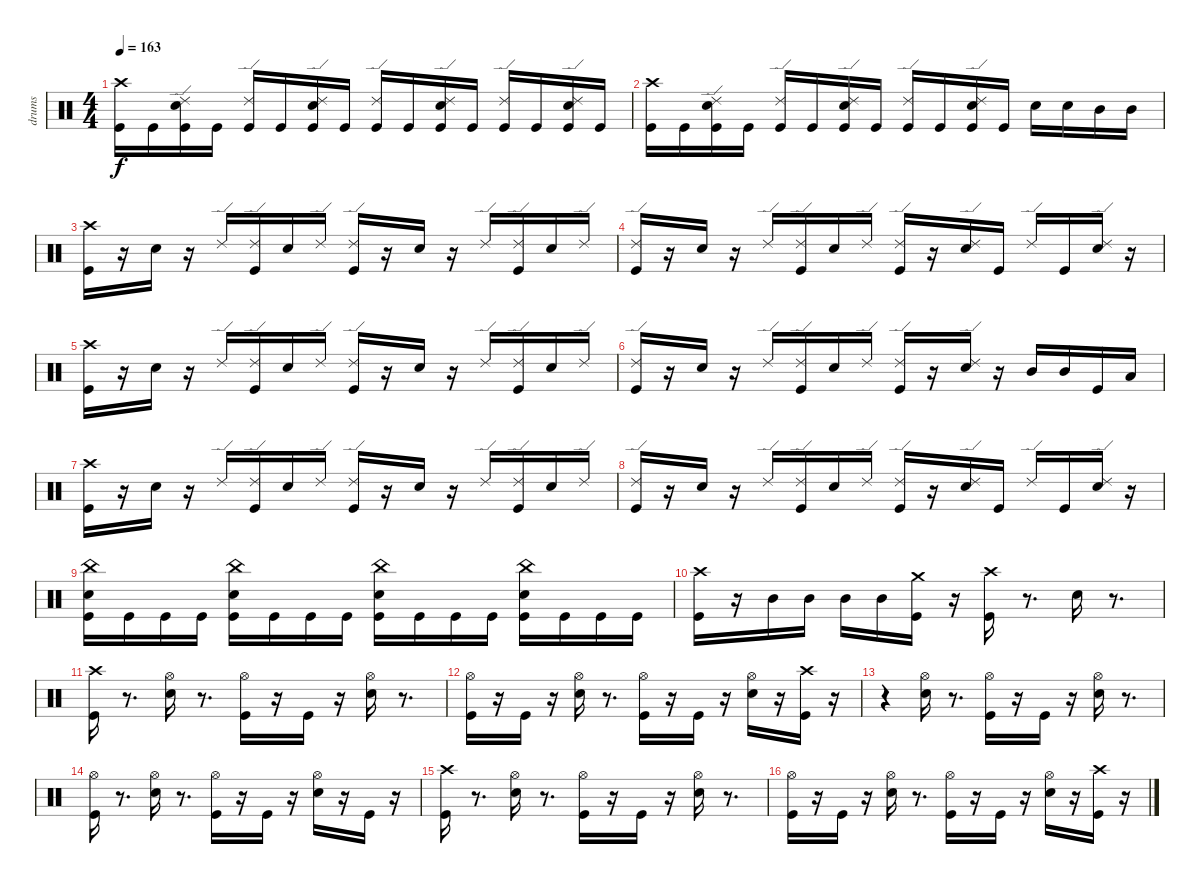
\track ("drums" "drums") {instrument percussion}
\staff {score}
\articulation defaults
\ts (4 4)
\tempo 163
\clef neutral
\ks c
("Crash high (hit)" "Kick (hit)").16{dy f} "Kick (hit)".16 ("Ride (edge) 2" "Kick (hit)" "Snare (hit) 2").16 "Kick (hit)".16 ("Ride (edge) 2" "Kick (hit)").16 "Kick (hit)".16 ("Ride (edge) 2" "Snare (hit) 2" "Kick (hit)").16 "Kick (hit)".16 ("Ride (edge) 2" "Kick (hit)").16 "Kick (hit)".16 ("Ride (edge) 2" "Snare (hit) 2" "Kick (hit)").16 "Kick (hit)".16 ("Ride (edge) 2" "Kick (hit)").16 "Kick (hit)".16 ("Ride (edge) 2" "Snare (hit) 2" "Kick (hit)").16 "Kick (hit)".16 |
("Crash high (hit)" "Kick (hit)").16 "Kick (hit)".16 ("Ride (edge) 2" "Kick (hit)" "Snare (hit) 2").16 "Kick (hit)".16 ("Ride (edge) 2" "Kick (hit)").16 "Kick (hit)".16 ("Ride (edge) 2" "Snare (hit) 2" "Kick (hit)").16 "Kick (hit)".16 ("Ride (edge) 2" "Kick (hit)").16 "Kick (hit)".16 ("Ride (edge) 2" "Snare (hit) 2" "Kick (hit)").16 "Kick (hit)".16 "Snare (hit) 2".16 "Snare (hit) 2".16 "Mid Tom (hit)".16 "Mid Tom (hit)".16 |
("Crash high (hit)" "Kick (hit)").16 r.16 "Snare (hit) 2".16 r.16 "Ride (edge) 2".16 ("Ride (edge) 2" "Kick (hit)").16 "Snare (hit) 2".16 "Ride (edge) 2".16 ("Ride (edge) 2" "Kick (hit)").16 r.16 "Snare (hit) 2".16 r.16 "Ride (edge) 2".16 ("Ride (edge) 2" "Kick (hit)").16 "Snare (hit) 2".16 "Ride (edge) 2".16 |
("Kick (hit)" "Ride (edge) 2").16 r.16 "Snare (hit) 2".16 r.16 "Ride (edge) 2".16 ("Ride (edge) 2" "Kick (hit)").16 "Snare (hit) 2".16 "Ride (edge) 2".16 ("Ride (edge) 2" "Kick (hit)").16 r.16 ("Ride (edge) 2" "Snare (hit) 2").16 "Kick (hit)".16 "Ride (edge) 2".16 "Kick (hit)".16 ("Ride (edge) 2" "Snare (hit) 2").16 r.16 |
("Crash high (hit)" "Kick (hit)").16 r.16 "Snare (hit) 2".16 r.16 "Ride (edge) 2".16 ("Ride (edge) 2" "Kick (hit)").16 "Snare (hit) 2".16 "Ride (edge) 2".16 ("Ride (edge) 2" "Kick (hit)").16 r.16 "Snare (hit) 2".16 r.16 "Ride (edge) 2".16 ("Ride (edge) 2" "Kick (hit)").16 "Snare (hit) 2".16 "Ride (edge) 2".16 |
("Kick (hit)" "Ride (edge) 2").16 r.16 "Snare (hit) 2".16 r.16 "Ride (edge) 2".16 ("Ride (edge) 2" "Kick (hit)").16 "Snare (hit) 2".16 "Ride (edge) 2".16 ("Ride (edge) 2" "Kick (hit)").16 r.16 ("Ride (edge) 2" "Snare (hit) 2").16 r.16 "Mid Tom (hit)".16 "Mid Tom (hit)".16 "Kick (hit)".16 "Low Tom (hit)".16 |
("Crash high (hit)" "Kick (hit)").16 r.16 "Snare (hit) 2".16 r.16 "Ride (edge) 2".16 ("Ride (edge) 2" "Kick (hit)").16 "Snare (hit) 2".16 "Ride (edge) 2".16 ("Ride (edge) 2" "Kick (hit)").16 r.16 "Snare (hit) 2".16 r.16 "Ride (edge) 2".16 ("Ride (edge) 2" "Kick (hit)").16 "Snare (hit) 2".16 "Ride (edge) 2".16 |
("Kick (hit)" "Ride (edge) 2").16 r.16 "Snare (hit) 2".16 r.16 "Ride (edge) 2".16 ("Ride (edge) 2" "Kick (hit)").16 "Snare (hit) 2".16 "Ride (edge) 2".16 ("Ride (edge) 2" "Kick (hit)").16 r.16 ("Ride (edge) 2" "Snare (hit) 2").16 "Kick (hit)".16 "Ride (edge) 2".16 "Kick (hit)".16 ("Ride (edge) 2" "Snare (hit) 2").16 r.16 |
("China (hit)" "Snare (hit) 2" "Kick (hit)").16 "Kick (hit)".16 "Kick (hit)".16 "Kick (hit)".16 ("Snare (hit) 2" "China (hit)" "Kick (hit)").16 "Kick (hit)".16 "Kick (hit)".16 "Kick (hit)".16 ("China (hit)" "Snare (hit) 2" "Kick (hit)").16 "Kick (hit)".16 "Kick (hit)".16 "Kick (hit)".16 ("Snare (hit) 2" "China (hit)" "Kick (hit)").16 "Kick (hit)".16 "Kick (hit)".16 "Kick (hit)".16 |
("Kick (hit)" "Crash high (hit)").16 r.16 "Mid Tom (hit)".16 "Mid Tom (hit)".16 "Mid Tom (hit)".16 "Mid Tom (hit)".16 ("Kick (hit)" "Crash medium (hit)").16 r.16 ("Crash high (hit)" "Kick (hit)").16 r.8{d} "Snare (hit) 2".16 r.8{d} |
("Crash high (hit)" "Kick (hit)").16 r.8{d} ("Hi-Hat (open)" "Snare (hit) 2").16 r.8{d} ("Hi-Hat (open)" "Kick (hit)").16 r.16 "Kick (hit)".16 r.16 ("Hi-Hat (open)" "Snare (hit) 2").16 r.8{d} |
("Hi-Hat (open)" "Kick (hit)").16 r.16 "Kick (hit)".16 r.16 ("Hi-Hat (open)" "Snare (hit) 2").16 r.8{d} ("Hi-Hat (open)" "Kick (hit)").16 r.16 "Kick (hit)".16 r.16 ("Hi-Hat (open)" "Snare (hit) 2").16 r.16 ("Crash high (hit)" "Kick (hit)").16 r.16 |
r.4 ("Hi-Hat (open)" "Snare (hit) 2").16 r.8{d} ("Hi-Hat (open)" "Kick (hit)").16 r.16 "Kick (hit)".16 r.16 ("Hi-Hat (open)" "Snare (hit) 2").16 r.8{d} |
("Hi-Hat (open)" "Kick (hit)").16 r.8{d} ("Hi-Hat (open)" "Snare (hit) 2").16 r.8{d} ("Hi-Hat (open)" "Kick (hit)").16 r.16 "Kick (hit)".16 r.16 ("Hi-Hat (open)" "Snare (hit) 2").16 r.16 "Kick (hit)".16 r.16 |
("Crash high (hit)" "Kick (hit)").16 r.8{d} ("Hi-Hat (open)" "Snare (hit) 2").16 r.8{d} ("Hi-Hat (open)" "Kick (hit)").16 r.16 "Kick (hit)".16 r.16 ("Hi-Hat (open)" "Snare (hit) 2").16 r.8{d} |
("Hi-Hat (open)" "Kick (hit)").16 r.16 "Kick (hit)".16 r.16 ("Hi-Hat (open)" "Snare (hit) 2").16 r.8{d} ("Hi-Hat (open)" "Kick (hit)").16 r.16 "Kick (hit)".16 r.16 ("Hi-Hat (open)" "Snare (hit) 2").16 r.16 ("Crash high (hit)" "Kick (hit)").16 r.16
